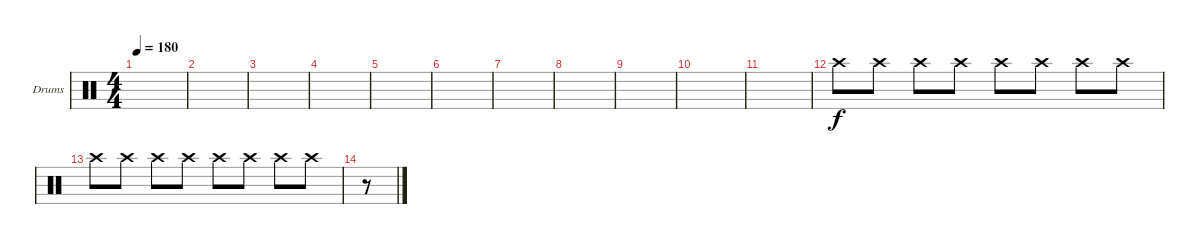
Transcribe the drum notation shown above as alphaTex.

\bracketExtendMode groupsimilarinstruments
\firstSystemTrackNameOrientation horizontal
\otherSystemsTrackNameOrientation horizontal
\track ("Drumkit" "Drums") {instrument percussion}
\staff {score}
\articulation defaults
\ts (4 4)
\tempo 180
\clef neutral
\scale
0.333333
\ks c
|
\scale
0.333333 |
\scale
0.333333 |
\scale
0.333333 |
\scale
0.333333 |
\scale
0.333333 |
\scale
0.333333 |
\scale
0.333333 |
\scale
0.333333 |
\scale
0.333333 |
\scale
0.333333 |
\scale
0.333333 "Crash high (hit)".8 "Crash high (hit)".8 "Crash high (hit)".8 "Crash high (hit)".8 "Crash high (hit)".8 "Crash high (hit)".8 "Crash high (hit)".8 "Crash high (hit)".8 |
\scale
0.333333 "Crash high (hit)".8 "Crash high (hit)".8 "Crash high (hit)".8 "Crash high (hit)".8 "Crash high (hit)".8 "Crash high (hit)".8 "Crash high (hit)".8 "Crash high (hit)".8 |
\scale
0.333333 r.8 |
\scale
0.333333 |
\scale
0.333333
